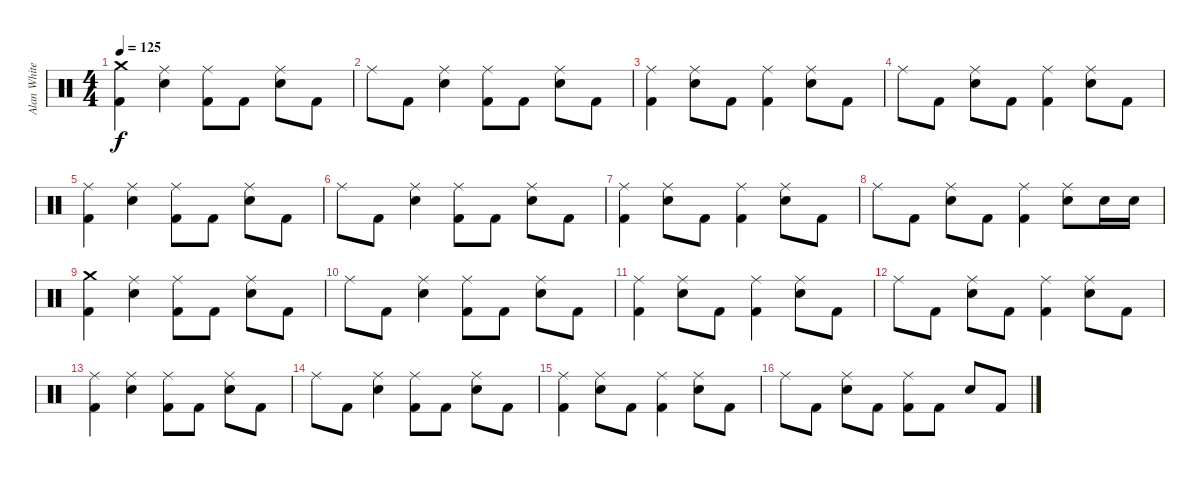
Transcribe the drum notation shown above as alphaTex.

\track ("Alan White" "Alan White") {instrument percussion}
\staff {score}
\articulation defaults
\ts (4 4)
\tempo 125
\clef neutral
\ks c
("Crash medium (hit)" "Kick (hit) 2").4{dy f} ("Ride (middle)" "Snare (hit) 2").4 ("Ride (middle)" "Kick (hit) 2").8 "Kick (hit) 2".8 ("Ride (middle)" "Snare (hit) 2").8 "Kick (hit) 2".8 |
"Ride (middle)".8 "Kick (hit) 2".8 ("Ride (middle)" "Snare (hit) 2").4 ("Ride (middle)" "Kick (hit) 2").8 "Kick (hit) 2".8 ("Ride (middle)" "Snare (hit) 2").8 "Kick (hit) 2".8 |
("Ride (middle)" "Kick (hit) 2").4 ("Ride (middle)" "Snare (hit) 2").8 "Kick (hit) 2".8 ("Ride (middle)" "Kick (hit) 2").4 ("Ride (middle)" "Snare (hit) 2").8 "Kick (hit) 2".8 |
"Ride (middle)".8 "Kick (hit) 2".8 ("Ride (middle)" "Snare (hit) 2").8 "Kick (hit) 2".8 ("Ride (middle)" "Kick (hit) 2").4 ("Ride (middle)" "Snare (hit) 2").8 "Kick (hit) 2".8 |
("Ride (middle)" "Kick (hit) 2").4 ("Ride (middle)" "Snare (hit) 2").4 ("Ride (middle)" "Kick (hit) 2").8 "Kick (hit) 2".8 ("Ride (middle)" "Snare (hit) 2").8 "Kick (hit) 2".8 |
"Ride (middle)".8 "Kick (hit) 2".8 ("Ride (middle)" "Snare (hit) 2").4 ("Ride (middle)" "Kick (hit) 2").8 "Kick (hit) 2".8 ("Ride (middle)" "Snare (hit) 2").8 "Kick (hit) 2".8 |
("Ride (middle)" "Kick (hit) 2").4 ("Ride (middle)" "Snare (hit) 2").8 "Kick (hit) 2".8 ("Ride (middle)" "Kick (hit) 2").4 ("Ride (middle)" "Snare (hit) 2").8 "Kick (hit) 2".8 |
"Ride (middle)".8 "Kick (hit) 2".8 ("Ride (middle)" "Snare (hit) 2").8 "Kick (hit) 2".8 ("Ride (middle)" "Kick (hit) 2").4 ("Ride (middle)" "Snare (hit) 2").8 "Snare (hit) 2".16 "Snare (hit) 2".16 |
("Crash medium (hit)" "Kick (hit) 2").4 ("Ride (middle)" "Snare (hit) 2").4 ("Ride (middle)" "Kick (hit) 2").8 "Kick (hit) 2".8 ("Ride (middle)" "Snare (hit) 2").8 "Kick (hit) 2".8 |
"Ride (middle)".8 "Kick (hit) 2".8 ("Ride (middle)" "Snare (hit) 2").4 ("Ride (middle)" "Kick (hit) 2").8 "Kick (hit) 2".8 ("Ride (middle)" "Snare (hit) 2").8 "Kick (hit) 2".8 |
("Ride (middle)" "Kick (hit) 2").4 ("Ride (middle)" "Snare (hit) 2").8 "Kick (hit) 2".8 ("Ride (middle)" "Kick (hit) 2").4 ("Ride (middle)" "Snare (hit) 2").8 "Kick (hit) 2".8 |
"Ride (middle)".8 "Kick (hit) 2".8 ("Ride (middle)" "Snare (hit) 2").8 "Kick (hit) 2".8 ("Ride (middle)" "Kick (hit) 2").4 ("Ride (middle)" "Snare (hit) 2").8 "Kick (hit) 2".8 |
("Ride (middle)" "Kick (hit) 2").4 ("Ride (middle)" "Snare (hit) 2").4 ("Ride (middle)" "Kick (hit) 2").8 "Kick (hit) 2".8 ("Ride (middle)" "Snare (hit) 2").8 "Kick (hit) 2".8 |
"Ride (middle)".8 "Kick (hit) 2".8 ("Ride (middle)" "Snare (hit) 2").4 ("Ride (middle)" "Kick (hit) 2").8 "Kick (hit) 2".8 ("Ride (middle)" "Snare (hit) 2").8 "Kick (hit) 2".8 |
("Ride (middle)" "Kick (hit) 2").4 ("Ride (middle)" "Snare (hit) 2").8 "Kick (hit) 2".8 ("Ride (middle)" "Kick (hit) 2").4 ("Ride (middle)" "Snare (hit) 2").8 "Kick (hit) 2".8 |
"Ride (middle)".8 "Kick (hit) 2".8 ("Ride (middle)" "Snare (hit) 2").8 "Kick (hit) 2".8 ("Ride (middle)" "Kick (hit) 2").8 "Kick (hit) 2".8 "Snare (hit) 2".8 "Kick (hit) 2".8
